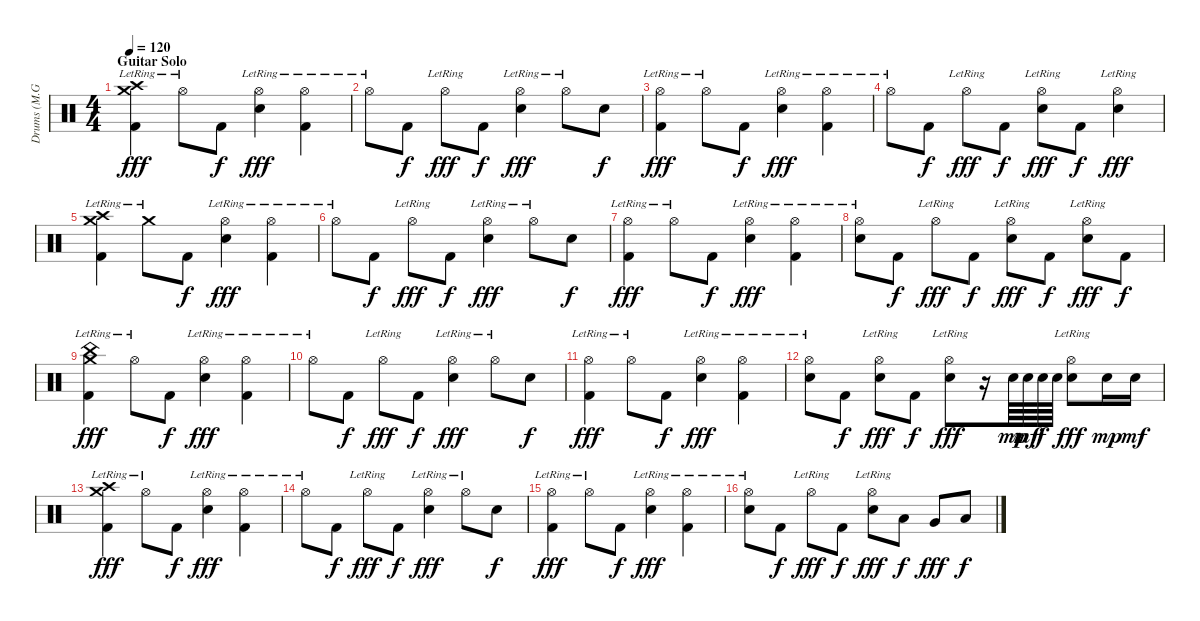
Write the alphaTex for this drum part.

\track ("Drums (M.Grosskopf)" "Drums (M.G") {instrument percussion}
\staff {score}
\articulation defaults
\ts (4 4)
\section ("" "Guitar Solo")
\tempo 120
\clef neutral
\ks c
("Crash high (hit)"{lr} "Crash medium (hit)"{lr} "Kick (hit) 2").4{dy fff} "Hi-Hat (open)"{lr}.8 "Kick (hit) 2".8{dy f} ("Hi-Hat (open)"{lr} "Electric Snare (hit)").4{dy fff} ("Hi-Hat (open)"{lr} "Kick (hit) 2").4 |
"Hi-Hat (open)"{lr}.8 "Kick (hit) 2".8{dy f} "Hi-Hat (open)"{lr}.8{dy fff} "Kick (hit) 2".8{dy f} ("Hi-Hat (open)"{lr} "Electric Snare (hit)").4{dy fff} "Hi-Hat (open)"{lr}.8 "Electric Snare (hit)".8{dy f} |
("Hi-Hat (open)"{lr} "Kick (hit) 2").4{dy fff} "Hi-Hat (open)"{lr}.8 "Kick (hit) 2".8{dy f} ("Hi-Hat (open)"{lr} "Electric Snare (hit)").4{dy fff} ("Hi-Hat (open)"{lr} "Kick (hit) 2").4 |
"Hi-Hat (open)"{lr}.8 "Kick (hit) 2".8{dy f} "Hi-Hat (open)"{lr}.8{dy fff} "Kick (hit) 2".8{dy f} ("Hi-Hat (open)"{lr} "Electric Snare (hit)").8{dy fff} "Kick (hit) 2".8{dy f} ("Hi-Hat (open)"{lr} "Electric Snare (hit)").4{dy fff} |
("Crash high (hit)"{lr} "Crash medium (hit)"{lr} "Kick (hit) 2").4 "Crash medium (hit)"{lr}.8 "Kick (hit) 2".8{dy f} ("Hi-Hat (open)"{lr} "Electric Snare (hit)").4{dy fff} ("Hi-Hat (open)"{lr} "Kick (hit) 2").4 |
"Hi-Hat (open)"{lr}.8 "Kick (hit) 2".8{dy f} "Hi-Hat (open)"{lr}.8{dy fff} "Kick (hit) 2".8{dy f} ("Hi-Hat (open)"{lr} "Electric Snare (hit)").4{dy fff} "Hi-Hat (open)"{lr}.8 "Electric Snare (hit)".8{dy f} |
("Hi-Hat (open)"{lr} "Kick (hit) 2").4{dy fff} "Hi-Hat (open)"{lr}.8 "Kick (hit) 2".8{dy f} ("Hi-Hat (open)"{lr} "Electric Snare (hit)").4{dy fff} ("Hi-Hat (open)"{lr} "Kick (hit) 2").4 |
("Hi-Hat (open)"{lr} "Electric Snare (hit)").8 "Kick (hit) 2".8{dy f} "Hi-Hat (open)"{lr}.8{dy fff} "Kick (hit) 2".8{dy f} ("Hi-Hat (open)"{lr} "Electric Snare (hit)").8{dy fff} "Kick (hit) 2".8{dy f} ("Hi-Hat (open)"{lr} "Electric Snare (hit)").8{dy fff} "Kick (hit) 2".8{dy f} |
("Crash medium (hit)"{lr} "Kick (hit) 2" "China (hit)"{lr}).4{dy fff} "Hi-Hat (open)"{lr}.8 "Kick (hit) 2".8{dy f} ("Hi-Hat (open)"{lr} "Electric Snare (hit)").4{dy fff} ("Hi-Hat (open)"{lr} "Kick (hit) 2").4 |
"Hi-Hat (open)"{lr}.8 "Kick (hit) 2".8{dy f} "Hi-Hat (open)"{lr}.8{dy fff} "Kick (hit) 2".8{dy f} ("Hi-Hat (open)"{lr} "Electric Snare (hit)").4{dy fff} "Hi-Hat (open)"{lr}.8 "Electric Snare (hit)".8{dy f} |
("Hi-Hat (open)"{lr} "Kick (hit) 2").4{dy fff} "Hi-Hat (open)"{lr}.8 "Kick (hit) 2".8{dy f} ("Hi-Hat (open)"{lr} "Electric Snare (hit)").4{dy fff} ("Hi-Hat (open)"{lr} "Kick (hit) 2").4 |
("Hi-Hat (open)"{lr} "Electric Snare (hit)").8 "Kick (hit) 2".8{dy f} ("Hi-Hat (open)"{lr} "Electric Snare (hit)").8{dy fff} "Kick (hit) 2".8{dy f} ("Hi-Hat (open)"{lr} "Electric Snare (hit)").8{dy fff} r.16 "Electric Snare (hit)".64{dy mp} "Electric Snare (hit)".64{dy mf} "Electric Snare (hit)".64{dy f} "Electric Snare (hit)".64 ("Hi-Hat (open)"{lr} "Electric Snare (hit)").8{dy fff} "Electric Snare (hit)".16{dy mp} "Electric Snare (hit)".16{dy mf} |
("Crash high (hit)"{lr} "Crash medium (hit)"{lr} "Kick (hit) 2").4{dy fff} "Hi-Hat (open)"{lr}.8 "Kick (hit) 2".8{dy f} ("Hi-Hat (open)"{lr} "Electric Snare (hit)").4{dy fff} ("Hi-Hat (open)"{lr} "Kick (hit) 2").4 |
"Hi-Hat (open)"{lr}.8 "Kick (hit) 2".8{dy f} "Hi-Hat (open)"{lr}.8{dy fff} "Kick (hit) 2".8{dy f} ("Hi-Hat (open)"{lr} "Electric Snare (hit)").4{dy fff} "Hi-Hat (open)"{lr}.8 "Electric Snare (hit)".8{dy f} |
("Hi-Hat (open)"{lr} "Kick (hit) 2").4{dy fff} "Hi-Hat (open)"{lr}.8 "Kick (hit) 2".8{dy f} ("Hi-Hat (open)"{lr} "Electric Snare (hit)").4{dy fff} ("Hi-Hat (open)"{lr} "Kick (hit) 2").4 |
("Hi-Hat (open)"{lr} "Electric Snare (hit)").8 "Kick (hit) 2".8{dy f} "Hi-Hat (open)"{lr}.8{dy fff} "Kick (hit) 2".8{dy f} ("Hi-Hat (open)"{lr} "Electric Snare (hit)").8{dy fff} "Low Tom (hit)".8{dy f} "Very Low Tom (hit)".8{dy fff} "Low Floor Tom (hit)".8{dy f}
